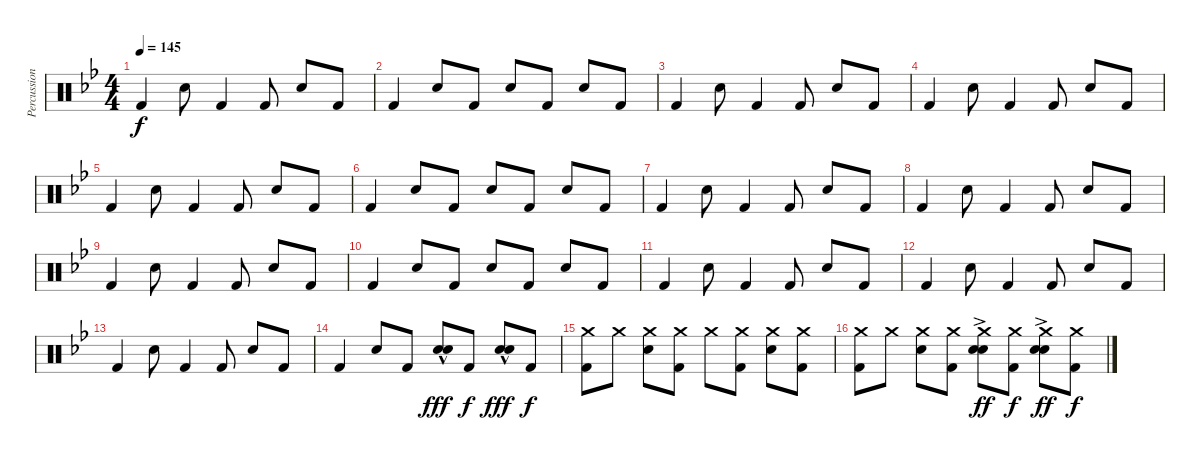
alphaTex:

\track ("Percussion" "Percussion") {instrument percussion}
\staff {score}
\articulation defaults
\ts (4 4)
\tempo 145
\clef neutral
\ks gminor "Kick (hit) 2".4{dy f} "Electric Snare (hit)".8 "Kick (hit) 2".4 "Kick (hit) 2".8 "Electric Snare (hit)".8 "Kick (hit) 2".8
|
"Kick (hit) 2".4 "Electric Snare (hit)".8 "Kick (hit) 2".8 "Electric Snare (hit)".8 "Kick (hit) 2".8 "Electric Snare (hit)".8 "Kick (hit) 2".8 |
"Kick (hit) 2".4 "Electric Snare (hit)".8 "Kick (hit) 2".4 "Kick (hit) 2".8 "Electric Snare (hit)".8 "Kick (hit) 2".8 |
"Kick (hit) 2".4 "Electric Snare (hit)".8 "Kick (hit) 2".4 "Kick (hit) 2".8 "Electric Snare (hit)".8 "Kick (hit) 2".8 |
"Kick (hit) 2".4 "Electric Snare (hit)".8 "Kick (hit) 2".4 "Kick (hit) 2".8 "Electric Snare (hit)".8 "Kick (hit) 2".8 |
"Kick (hit) 2".4 "Electric Snare (hit)".8 "Kick (hit) 2".8 "Electric Snare (hit)".8 "Kick (hit) 2".8 "Electric Snare (hit)".8 "Kick (hit) 2".8 |
"Kick (hit) 2".4 "Electric Snare (hit)".8 "Kick (hit) 2".4 "Kick (hit) 2".8 "Electric Snare (hit)".8 "Kick (hit) 2".8 |
"Kick (hit) 2".4 "Electric Snare (hit)".8 "Kick (hit) 2".4 "Kick (hit) 2".8 "Electric Snare (hit)".8 "Kick (hit) 2".8 |
"Kick (hit) 2".4 "Electric Snare (hit)".8 "Kick (hit) 2".4 "Kick (hit) 2".8 "Electric Snare (hit)".8 "Kick (hit) 2".8 |
"Kick (hit) 2".4 "Electric Snare (hit)".8 "Kick (hit) 2".8 "Electric Snare (hit)".8 "Kick (hit) 2".8 "Electric Snare (hit)".8 "Kick (hit) 2".8 |
"Kick (hit) 2".4 "Electric Snare (hit)".8 "Kick (hit) 2".4 "Kick (hit) 2".8 "Electric Snare (hit)".8 "Kick (hit) 2".8 |
"Kick (hit) 2".4 "Electric Snare (hit)".8 "Kick (hit) 2".4 "Kick (hit) 2".8 "Electric Snare (hit)".8 "Kick (hit) 2".8 |
"Kick (hit) 2".4 "Electric Snare (hit)".8 "Kick (hit) 2".4 "Kick (hit) 2".8 "Electric Snare (hit)".8 "Kick (hit) 2".8 |
"Kick (hit) 2".4 "Electric Snare (hit)".8 "Kick (hit) 2".8 ("Hand Clap (hit)"{hac} "Electric Snare (hit)").8{dy fff} "Kick (hit) 2".8{dy f} ("Hand Clap (hit)"{hac} "Electric Snare (hit)").8{dy fff} "Kick (hit) 2".8{dy f} |
("Crash medium (hit)" "Kick (hit) 2").8 "Crash medium (hit)".8 ("Crash medium (hit)" "Electric Snare (hit)").8 ("Crash medium (hit)" "Kick (hit) 2").8 "Crash medium (hit)".8 ("Crash medium (hit)" "Kick (hit) 2").8 ("Crash medium (hit)" "Electric Snare (hit)").8 ("Crash medium (hit)" "Kick (hit) 2").8 |
("Crash medium (hit)" "Kick (hit) 2").8 "Crash medium (hit)".8 ("Crash medium (hit)" "Electric Snare (hit)").8 ("Crash medium (hit)" "Kick (hit) 2").8 ("Crash medium (hit)" "Hand Clap (hit)"{ac} "Electric Snare (hit)").8{dy ff} ("Crash medium (hit)" "Kick (hit) 2").8{dy f} ("Crash medium (hit)" "Hand Clap (hit)"{ac} "Electric Snare (hit)").8{dy ff} ("Crash medium (hit)" "Kick (hit) 2").8{dy f}
